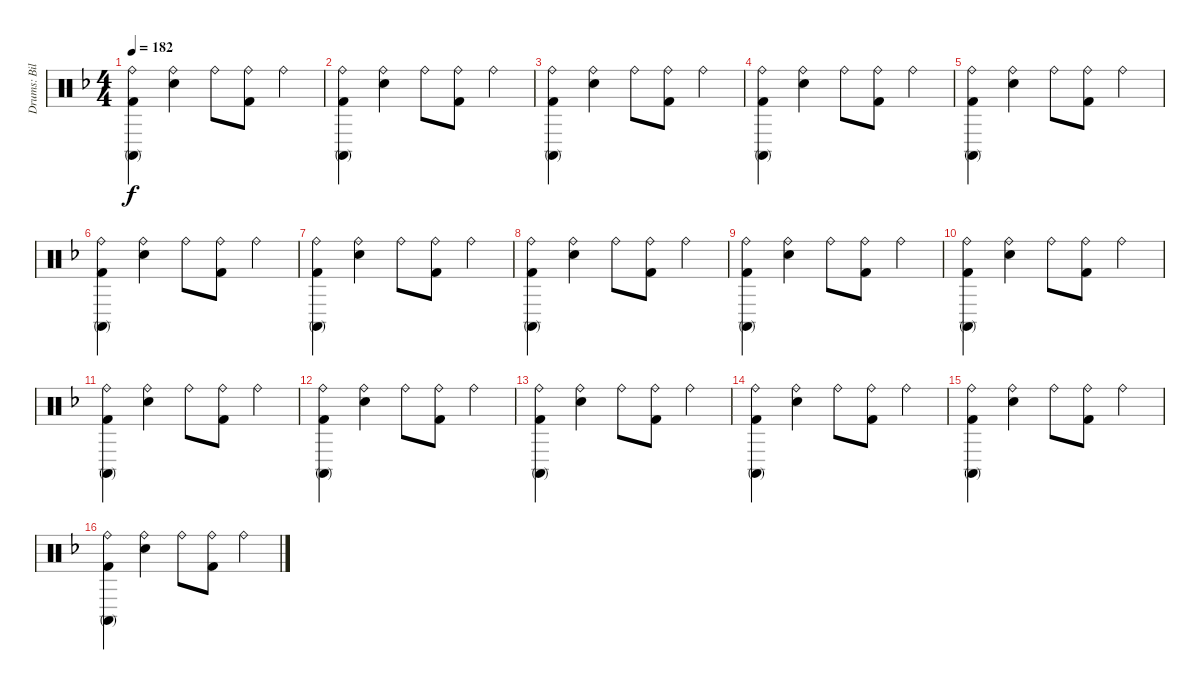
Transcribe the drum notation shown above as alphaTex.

\track ("Drums: Bill" "Drums: Bil") {instrument percussion}
\staff {score}
\articulation defaults
\ts (4 4)
\tempo 182
\clef neutral
\ks f
("Ride (bell)" "Conga high (mute)" "Kick (hit) 2").4{dy f} ("Ride (bell)" "Snare (hit) 2").4 "Ride (bell)".8 ("Ride (bell)" "Kick (hit) 2").8 "Ride (bell)".4 |
("Ride (bell)" "Conga high (mute)" "Kick (hit) 2").4 ("Ride (bell)" "Snare (hit) 2").4 "Ride (bell)".8 ("Ride (bell)" "Kick (hit) 2").8 "Ride (bell)".4 |
("Ride (bell)" "Conga high (mute)" "Kick (hit) 2").4 ("Ride (bell)" "Snare (hit) 2").4 "Ride (bell)".8 ("Ride (bell)" "Kick (hit) 2").8 "Ride (bell)".4 |
("Ride (bell)" "Conga high (mute)" "Kick (hit) 2").4 ("Ride (bell)" "Snare (hit) 2").4 "Ride (bell)".8 ("Ride (bell)" "Kick (hit) 2").8 "Ride (bell)".4 |
("Ride (bell)" "Conga high (mute)" "Kick (hit) 2").4 ("Ride (bell)" "Snare (hit) 2").4 "Ride (bell)".8 ("Ride (bell)" "Kick (hit) 2").8 "Ride (bell)".4 |
("Ride (bell)" "Conga high (mute)" "Kick (hit) 2").4 ("Ride (bell)" "Snare (hit) 2").4 "Ride (bell)".8 ("Ride (bell)" "Kick (hit) 2").8 "Ride (bell)".4 |
("Ride (bell)" "Conga high (mute)" "Kick (hit) 2").4 ("Ride (bell)" "Snare (hit) 2").4 "Ride (bell)".8 ("Ride (bell)" "Kick (hit) 2").8 "Ride (bell)".4 |
("Ride (bell)" "Conga high (mute)" "Kick (hit) 2").4 ("Ride (bell)" "Snare (hit) 2").4 "Ride (bell)".8 ("Ride (bell)" "Kick (hit) 2").8 "Ride (bell)".4 |
("Ride (bell)" "Conga high (mute)" "Kick (hit) 2").4 ("Ride (bell)" "Snare (hit) 2").4 "Ride (bell)".8 ("Ride (bell)" "Kick (hit) 2").8 "Ride (bell)".4 |
("Ride (bell)" "Conga high (mute)" "Kick (hit) 2").4 ("Ride (bell)" "Snare (hit) 2").4 "Ride (bell)".8 ("Ride (bell)" "Kick (hit) 2").8 "Ride (bell)".4 |
("Ride (bell)" "Conga high (mute)" "Kick (hit) 2").4 ("Ride (bell)" "Snare (hit) 2").4 "Ride (bell)".8 ("Ride (bell)" "Kick (hit) 2").8 "Ride (bell)".4 |
("Ride (bell)" "Conga high (mute)" "Kick (hit) 2").4 ("Ride (bell)" "Snare (hit) 2").4 "Ride (bell)".8 ("Ride (bell)" "Kick (hit) 2").8 "Ride (bell)".4 |
("Ride (bell)" "Conga high (mute)" "Kick (hit) 2").4 ("Ride (bell)" "Snare (hit) 2").4 "Ride (bell)".8 ("Ride (bell)" "Kick (hit) 2").8 "Ride (bell)".4 |
("Ride (bell)" "Conga high (mute)" "Kick (hit) 2").4 ("Ride (bell)" "Snare (hit) 2").4 "Ride (bell)".8 ("Ride (bell)" "Kick (hit) 2").8 "Ride (bell)".4 |
("Ride (bell)" "Conga high (mute)" "Kick (hit) 2").4 ("Ride (bell)" "Snare (hit) 2").4 "Ride (bell)".8 ("Ride (bell)" "Kick (hit) 2").8 "Ride (bell)".4 |
("Ride (bell)" "Conga high (mute)" "Kick (hit) 2").4 ("Ride (bell)" "Snare (hit) 2").4 "Ride (bell)".8 ("Ride (bell)" "Kick (hit) 2").8 "Ride (bell)".4
